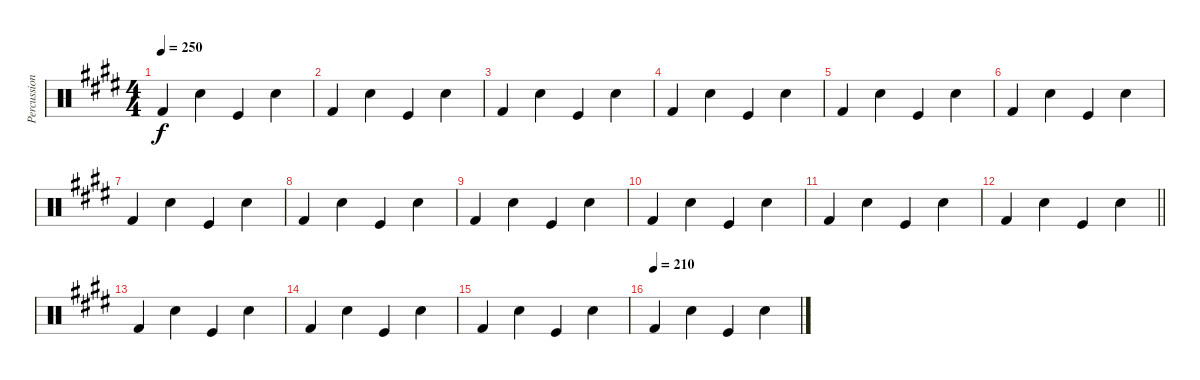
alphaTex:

\track ("Percussion" "Percussion") {instrument percussion}
\staff {score}
\articulation defaults
\ts (4 4)
\tempo 250
\clef neutral
\ks e "Kick (hit) 2".4{dy f} "Snare (hit) 2".4 "Kick (hit)".4 "Snare (hit) 2".4
|
"Kick (hit) 2".4 "Snare (hit) 2".4 "Kick (hit)".4 "Snare (hit) 2".4 |
"Kick (hit) 2".4 "Snare (hit) 2".4 "Kick (hit)".4 "Snare (hit) 2".4 |
"Kick (hit) 2".4 "Snare (hit) 2".4 "Kick (hit)".4 "Snare (hit) 2".4 |
"Kick (hit) 2".4 "Snare (hit) 2".4 "Kick (hit)".4 "Snare (hit) 2".4 |
"Kick (hit) 2".4 "Snare (hit) 2".4 "Kick (hit)".4 "Snare (hit) 2".4 |
"Kick (hit) 2".4 "Snare (hit) 2".4 "Kick (hit)".4 "Snare (hit) 2".4 |
"Kick (hit) 2".4 "Snare (hit) 2".4 "Kick (hit)".4 "Snare (hit) 2".4 |
"Kick (hit) 2".4 "Snare (hit) 2".4 "Kick (hit)".4 "Snare (hit) 2".4 |
"Kick (hit) 2".4 "Snare (hit) 2".4 "Kick (hit)".4 "Snare (hit) 2".4 |
"Kick (hit) 2".4 "Snare (hit) 2".4 "Kick (hit)".4 "Snare (hit) 2".4 |
\barLineRight lightlight "Kick (hit) 2".4 "Snare (hit) 2".4 "Kick (hit)".4 "Snare (hit) 2".4
|
"Kick (hit) 2".4 "Snare (hit) 2".4 "Kick (hit)".4 "Snare (hit) 2".4 |
"Kick (hit) 2".4 "Snare (hit) 2".4 "Kick (hit)".4 "Snare (hit) 2".4 |
"Kick (hit) 2".4 "Snare (hit) 2".4 "Kick (hit)".4 "Snare (hit) 2".4 |
\tempo (210)
"Kick (hit) 2".4 "Snare (hit) 2".4 "Kick (hit)".4 "Snare (hit) 2".4
